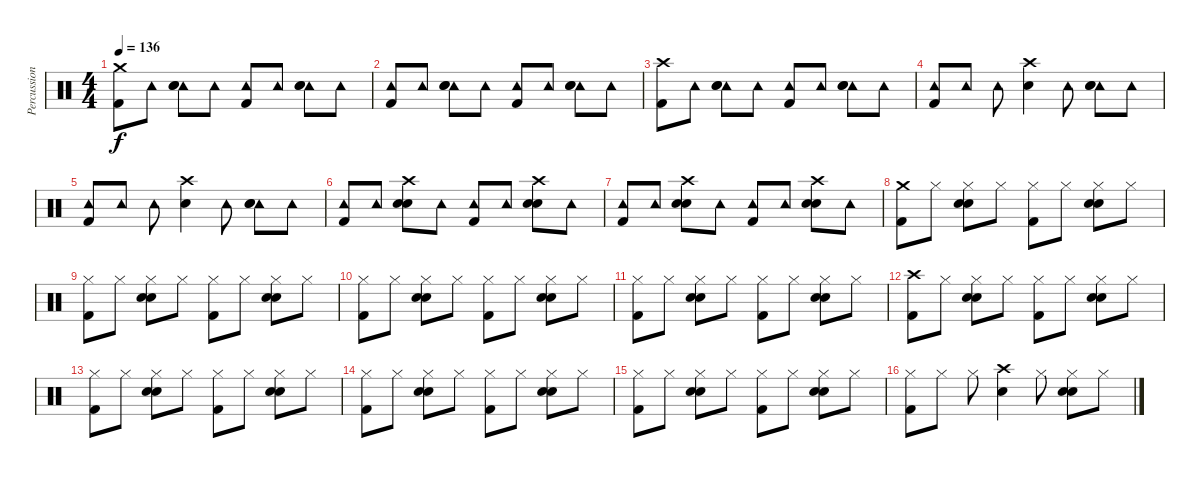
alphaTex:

\track ("Percussion" "Percussion") {instrument percussion}
\staff {score}
\articulation defaults
\ts (4 4)
\tempo 136
\clef neutral
\ks c
("Crash medium (hit)" "Kick (hit) 2").8{dy f} "Tambourine (hit)".8 ("Tambourine (hit)" "Snare (hit) 2" "Hand Clap (hit)").8 "Tambourine (hit)".8 ("Tambourine (hit)" "Kick (hit) 2").8 "Tambourine (hit)".8 ("Tambourine (hit)" "Snare (hit) 2" "Hand Clap (hit)").8 "Tambourine (hit)".8 |
("Tambourine (hit)" "Kick (hit) 2").8 "Tambourine (hit)".8 ("Tambourine (hit)" "Snare (hit) 2" "Hand Clap (hit)").8 "Tambourine (hit)".8 ("Tambourine (hit)" "Kick (hit) 2").8 "Tambourine (hit)".8 ("Tambourine (hit)" "Snare (hit) 2" "Hand Clap (hit)").8 "Tambourine (hit)".8 |
("Crash high (hit)" "Kick (hit) 2").8 "Tambourine (hit)".8 ("Tambourine (hit)" "Snare (hit) 2" "Hand Clap (hit)").8 "Tambourine (hit)".8 ("Tambourine (hit)" "Kick (hit) 2").8 "Tambourine (hit)".8 ("Tambourine (hit)" "Snare (hit) 2" "Hand Clap (hit)").8 "Tambourine (hit)".8 |
("Tambourine (hit)" "Kick (hit) 2").8 "Tambourine (hit)".8 "Tambourine (hit)".8 ("Crash high (hit)" "Snare (hit) 2").4 "Tambourine (hit)".8 ("Tambourine (hit)" "Snare (hit) 2" "Hand Clap (hit)").8 "Tambourine (hit)".8 |
("Tambourine (hit)" "Kick (hit) 2").8 "Tambourine (hit)".8 "Tambourine (hit)".8 ("Crash high (hit)" "Snare (hit) 2").4 "Tambourine (hit)".8 ("Tambourine (hit)" "Snare (hit) 2" "Hand Clap (hit)").8 "Tambourine (hit)".8 |
("Tambourine (hit)" "Kick (hit) 2").8 "Tambourine (hit)".8 ("Crash high (hit)" "Snare (hit) 2" "Hand Clap (hit)").8 "Tambourine (hit)".8 ("Tambourine (hit)" "Kick (hit) 2").8 "Tambourine (hit)".8 ("Crash high (hit)" "Snare (hit) 2" "Hand Clap (hit)").8 "Tambourine (hit)".8 |
("Tambourine (hit)" "Kick (hit) 2").8 "Tambourine (hit)".8 ("Crash high (hit)" "Snare (hit) 2" "Hand Clap (hit)").8 "Tambourine (hit)".8 ("Tambourine (hit)" "Kick (hit) 2").8 "Tambourine (hit)".8 ("Crash high (hit)" "Snare (hit) 2" "Hand Clap (hit)").8 "Tambourine (hit)".8 |
("Crash medium (hit)" "Kick (hit) 2").8 "Hi-Hat (closed)".8 ("Hi-Hat (closed)" "Snare (hit) 2" "Hand Clap (hit)").8 "Hi-Hat (closed)".8 ("Hi-Hat (closed)" "Kick (hit) 2").8 "Hi-Hat (closed)".8 ("Hi-Hat (closed)" "Snare (hit) 2" "Hand Clap (hit)").8 "Hi-Hat (closed)".8 |
("Hi-Hat (closed)" "Kick (hit) 2").8 "Hi-Hat (closed)".8 ("Hi-Hat (closed)" "Snare (hit) 2" "Hand Clap (hit)").8 "Hi-Hat (closed)".8 ("Hi-Hat (closed)" "Kick (hit) 2").8 "Hi-Hat (closed)".8 ("Hi-Hat (closed)" "Snare (hit) 2" "Hand Clap (hit)").8 "Hi-Hat (closed)".8 |
("Hi-Hat (closed)" "Kick (hit) 2").8 "Hi-Hat (closed)".8 ("Hi-Hat (closed)" "Snare (hit) 2" "Hand Clap (hit)").8 "Hi-Hat (closed)".8 ("Hi-Hat (closed)" "Kick (hit) 2").8 "Hi-Hat (closed)".8 ("Hi-Hat (closed)" "Snare (hit) 2" "Hand Clap (hit)").8 "Hi-Hat (closed)".8 |
("Hi-Hat (closed)" "Kick (hit) 2").8 "Hi-Hat (closed)".8 ("Hi-Hat (closed)" "Snare (hit) 2" "Hand Clap (hit)").8 "Hi-Hat (closed)".8 ("Hi-Hat (closed)" "Kick (hit) 2").8 "Hi-Hat (closed)".8 ("Hi-Hat (closed)" "Snare (hit) 2" "Hand Clap (hit)").8 "Hi-Hat (closed)".8 |
("Crash high (hit)" "Kick (hit) 2").8 "Hi-Hat (closed)".8 ("Hi-Hat (closed)" "Snare (hit) 2" "Hand Clap (hit)").8 "Hi-Hat (closed)".8 ("Hi-Hat (closed)" "Kick (hit) 2").8 "Hi-Hat (closed)".8 ("Hi-Hat (closed)" "Snare (hit) 2" "Hand Clap (hit)").8 "Hi-Hat (closed)".8 |
("Hi-Hat (closed)" "Kick (hit) 2").8 "Hi-Hat (closed)".8 ("Hi-Hat (closed)" "Snare (hit) 2" "Hand Clap (hit)").8 "Hi-Hat (closed)".8 ("Hi-Hat (closed)" "Kick (hit) 2").8 "Hi-Hat (closed)".8 ("Hi-Hat (closed)" "Snare (hit) 2" "Hand Clap (hit)").8 "Hi-Hat (closed)".8 |
("Hi-Hat (closed)" "Kick (hit) 2").8 "Hi-Hat (closed)".8 ("Hi-Hat (closed)" "Snare (hit) 2" "Hand Clap (hit)").8 "Hi-Hat (closed)".8 ("Hi-Hat (closed)" "Kick (hit) 2").8 "Hi-Hat (closed)".8 ("Hi-Hat (closed)" "Snare (hit) 2" "Hand Clap (hit)").8 "Hi-Hat (closed)".8 |
("Hi-Hat (closed)" "Kick (hit) 2").8 "Hi-Hat (closed)".8 ("Hi-Hat (closed)" "Snare (hit) 2" "Hand Clap (hit)").8 "Hi-Hat (closed)".8 ("Hi-Hat (closed)" "Kick (hit) 2").8 "Hi-Hat (closed)".8 ("Hi-Hat (closed)" "Snare (hit) 2" "Hand Clap (hit)").8 "Hi-Hat (closed)".8 |
("Hi-Hat (closed)" "Kick (hit) 2").8 "Hi-Hat (closed)".8 "Hi-Hat (closed)".8 ("Crash high (hit)" "Snare (hit) 2").4 "Hi-Hat (closed)".8 ("Hi-Hat (closed)" "Snare (hit) 2" "Hand Clap (hit)").8 "Hi-Hat (closed)".8
